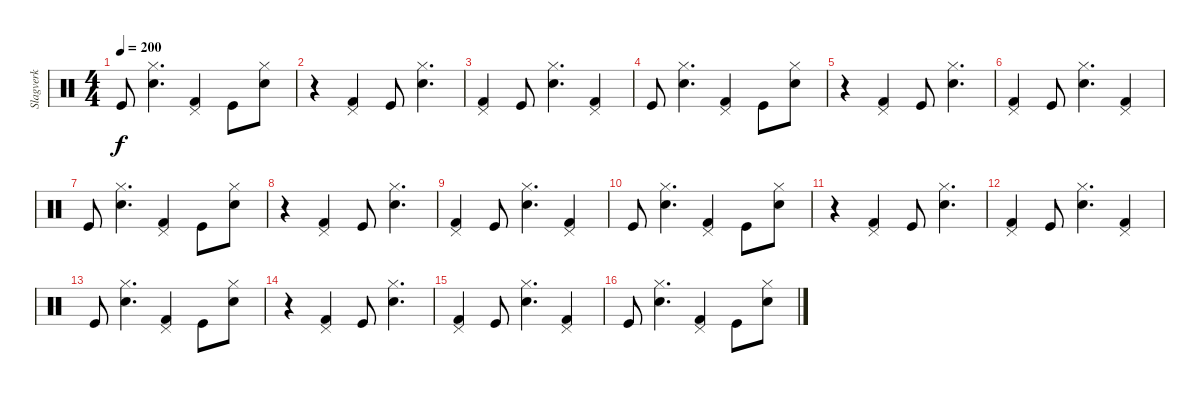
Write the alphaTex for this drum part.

\track ("Slagverk" "Slagverk") {instrument percussion}
\staff {score}
\articulation defaults
\ts (4 4)
\tempo 200
\clef neutral
\ks c "Kick (hit)".8{dy f}
("Hi-Hat (closed)" "Snare (hit) 2").4{d} ("Pedal Hi-Hat (hit)" "Kick (hit) 2").4 "Kick (hit)".8 ("Hi-Hat (closed)" "Snare (hit) 2").8 |
r.4 ("Pedal Hi-Hat (hit)" "Kick (hit) 2").4 "Kick (hit)".8 ("Hi-Hat (closed)" "Snare (hit) 2").4{d} |
("Pedal Hi-Hat (hit)" "Kick (hit) 2").4 "Kick (hit)".8 ("Hi-Hat (closed)" "Snare (hit) 2").4{d} ("Pedal Hi-Hat (hit)" "Kick (hit) 2").4 |
"Kick (hit)".8 ("Hi-Hat (closed)" "Snare (hit) 2").4{d} ("Pedal Hi-Hat (hit)" "Kick (hit) 2").4 "Kick (hit)".8 ("Hi-Hat (closed)" "Snare (hit) 2").8 |
r.4 ("Pedal Hi-Hat (hit)" "Kick (hit) 2").4 "Kick (hit)".8 ("Hi-Hat (closed)" "Snare (hit) 2").4{d} |
("Pedal Hi-Hat (hit)" "Kick (hit) 2").4 "Kick (hit)".8 ("Hi-Hat (closed)" "Snare (hit) 2").4{d} ("Pedal Hi-Hat (hit)" "Kick (hit) 2").4 |
"Kick (hit)".8 ("Hi-Hat (closed)" "Snare (hit) 2").4{d} ("Pedal Hi-Hat (hit)" "Kick (hit) 2").4 "Kick (hit)".8 ("Hi-Hat (closed)" "Snare (hit) 2").8 |
r.4 ("Pedal Hi-Hat (hit)" "Kick (hit) 2").4 "Kick (hit)".8 ("Hi-Hat (closed)" "Snare (hit) 2").4{d} |
("Pedal Hi-Hat (hit)" "Kick (hit) 2").4 "Kick (hit)".8 ("Hi-Hat (closed)" "Snare (hit) 2").4{d} ("Pedal Hi-Hat (hit)" "Kick (hit) 2").4 |
"Kick (hit)".8 ("Hi-Hat (closed)" "Snare (hit) 2").4{d} ("Pedal Hi-Hat (hit)" "Kick (hit) 2").4 "Kick (hit)".8 ("Hi-Hat (closed)" "Snare (hit) 2").8 |
r.4 ("Pedal Hi-Hat (hit)" "Kick (hit) 2").4 "Kick (hit)".8 ("Hi-Hat (closed)" "Snare (hit) 2").4{d} |
("Pedal Hi-Hat (hit)" "Kick (hit) 2").4 "Kick (hit)".8 ("Hi-Hat (closed)" "Snare (hit) 2").4{d} ("Pedal Hi-Hat (hit)" "Kick (hit) 2").4 |
"Kick (hit)".8 ("Hi-Hat (closed)" "Snare (hit) 2").4{d} ("Pedal Hi-Hat (hit)" "Kick (hit) 2").4 "Kick (hit)".8 ("Hi-Hat (closed)" "Snare (hit) 2").8 |
r.4 ("Pedal Hi-Hat (hit)" "Kick (hit) 2").4 "Kick (hit)".8 ("Hi-Hat (closed)" "Snare (hit) 2").4{d} |
("Pedal Hi-Hat (hit)" "Kick (hit) 2").4 "Kick (hit)".8 ("Hi-Hat (closed)" "Snare (hit) 2").4{d} ("Pedal Hi-Hat (hit)" "Kick (hit) 2").4 |
"Kick (hit)".8 ("Hi-Hat (closed)" "Snare (hit) 2").4{d} ("Pedal Hi-Hat (hit)" "Kick (hit) 2").4 "Kick (hit)".8 ("Hi-Hat (closed)" "Snare (hit) 2").8
